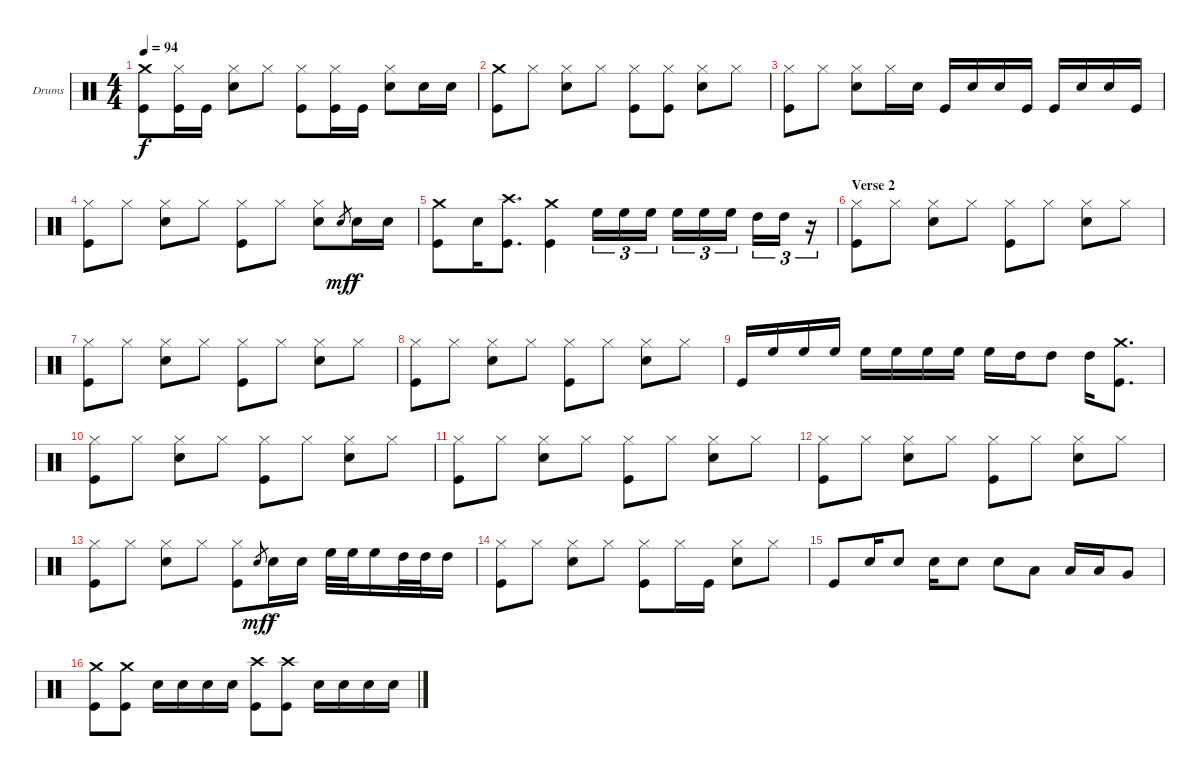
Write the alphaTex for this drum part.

\bracketExtendMode groupsimilarinstruments
\firstSystemTrackNameOrientation horizontal
\otherSystemsTrackNameOrientation horizontal
\track ("Drumkit" "Drums") {instrument percussion}
\staff {score}
\articulation defaults
\ts (4 4)
\tempo 94
\clef neutral
\ks c
("Crash medium (hit)" "Kick (hit)").8{dy f} ("Hi-Hat (closed)" "Kick (hit)").16 "Kick (hit)".16 ("Hi-Hat (closed)" "Snare (hit) 2").8 "Hi-Hat (closed)".8 ("Hi-Hat (closed)" "Kick (hit)").8 ("Hi-Hat (closed)" "Kick (hit)").16 "Kick (hit)".16 ("Hi-Hat (closed)" "Snare (hit) 2").8 "Snare (hit) 2".16 "Snare (hit) 2".16 |
("Crash medium (hit)" "Kick (hit)").8 "Hi-Hat (closed)".8 ("Hi-Hat (closed)" "Snare (hit) 2").8 "Hi-Hat (closed)".8 ("Hi-Hat (closed)" "Kick (hit)").8 ("Hi-Hat (closed)" "Kick (hit)").8 ("Hi-Hat (closed)" "Snare (hit) 2").8 "Hi-Hat (closed)".8 |
("Hi-Hat (closed)" "Kick (hit)").8 "Hi-Hat (closed)".8 ("Hi-Hat (closed)" "Snare (hit) 2").8 "Hi-Hat (closed)".16 "Snare (hit) 2".16 "Kick (hit)".16 "Snare (hit) 2".16 "Snare (hit) 2".16 "Kick (hit)".16 "Kick (hit)".16 "Snare (hit) 2".16 "Snare (hit) 2".16 "Kick (hit)".16 |
("Hi-Hat (closed)" "Kick (hit)").8 "Hi-Hat (closed)".8 ("Hi-Hat (closed)" "Snare (hit) 2").8 "Hi-Hat (closed)".8 ("Hi-Hat (closed)" "Kick (hit)").8 "Hi-Hat (closed)".8 ("Hi-Hat (closed)" "Snare (hit) 2").8 "Snare (hit) 2".8{gr dy mf} "Snare (hit) 2".16{dy f} "Snare (hit) 2".16 |
("Crash medium (hit)" "Kick (hit)").8 "Snare (hit) 2".16 ("Crash high (hit)" "Kick (hit)").8{d} ("Crash medium (hit)" "Kick (hit)").4 "High Floor Tom (hit)".16{tu (3 2)} "High Floor Tom (hit)".16{tu (3 2)} "High Floor Tom (hit)".16{tu (3 2)} "High Floor Tom (hit)".16{tu (3 2)} "High Floor Tom (hit)".16{tu (3 2)} "High Floor Tom (hit)".16{tu (3 2)} "High Tom (hit)".16{tu (3 2)} "High Tom (hit)".16{tu (3 2)} r.16{tu (3 2)} |
\section ("" "Verse 2")
("Hi-Hat (closed)" "Kick (hit)").8 "Hi-Hat (closed)".8 ("Hi-Hat (closed)" "Snare (hit) 2").8 "Hi-Hat (closed)".8 ("Hi-Hat (closed)" "Kick (hit)").8 "Hi-Hat (closed)".8 ("Hi-Hat (closed)" "Snare (hit) 2").8 "Hi-Hat (closed)".8 |
("Hi-Hat (closed)" "Kick (hit)").8 "Hi-Hat (closed)".8 ("Hi-Hat (closed)" "Snare (hit) 2").8 "Hi-Hat (closed)".8 ("Hi-Hat (closed)" "Kick (hit)").8 "Hi-Hat (closed)".8 ("Hi-Hat (closed)" "Snare (hit) 2").8 "Hi-Hat (closed)".8 |
("Hi-Hat (closed)" "Kick (hit)").8 "Hi-Hat (closed)".8 ("Hi-Hat (closed)" "Snare (hit) 2").8 "Hi-Hat (closed)".8 ("Hi-Hat (closed)" "Kick (hit)").8 "Hi-Hat (closed)".8 ("Hi-Hat (closed)" "Snare (hit) 2").8 "Hi-Hat (closed)".8 |
"Kick (hit)".16 "High Floor Tom (hit)".16 "High Floor Tom (hit)".16 "High Floor Tom (hit)".16 "High Floor Tom (hit)".16 "High Floor Tom (hit)".16 "High Floor Tom (hit)".16 "High Floor Tom (hit)".16 "High Floor Tom (hit)".16 "High Tom (hit)".16 "High Tom (hit)".8 "High Tom (hit)".16 ("Crash medium (hit)" "Kick (hit)").8{d} |
("Hi-Hat (closed)" "Kick (hit)").8 "Hi-Hat (closed)".8 ("Hi-Hat (closed)" "Snare (hit) 2").8 "Hi-Hat (closed)".8 ("Hi-Hat (closed)" "Kick (hit)").8 "Hi-Hat (closed)".8 ("Hi-Hat (closed)" "Snare (hit) 2").8 "Hi-Hat (closed)".8 |
("Hi-Hat (closed)" "Kick (hit)").8 "Hi-Hat (closed)".8 ("Hi-Hat (closed)" "Snare (hit) 2").8 "Hi-Hat (closed)".8 ("Hi-Hat (closed)" "Kick (hit)").8 "Hi-Hat (closed)".8 ("Hi-Hat (closed)" "Snare (hit) 2").8 "Hi-Hat (closed)".8 |
("Hi-Hat (closed)" "Kick (hit)").8 "Hi-Hat (closed)".8 ("Hi-Hat (closed)" "Snare (hit) 2").8 "Hi-Hat (closed)".8 ("Hi-Hat (closed)" "Kick (hit)").8 "Hi-Hat (closed)".8 ("Hi-Hat (closed)" "Snare (hit) 2").8 "Hi-Hat (closed)".8 |
("Hi-Hat (closed)" "Kick (hit)").8 "Hi-Hat (closed)".8 ("Hi-Hat (closed)" "Snare (hit) 2").8 "Hi-Hat (closed)".8 ("Hi-Hat (closed)" "Kick (hit)").8 "Snare (hit) 2".8{gr dy mf} "Snare (hit) 2".16{dy f} "Snare (hit) 2".16 "High Floor Tom (hit)".32 "High Floor Tom (hit)".32 "High Floor Tom (hit)".16 "High Tom (hit)".32 "High Tom (hit)".32 "High Tom (hit)".16 |
("Hi-Hat (closed)" "Kick (hit)").8 "Hi-Hat (closed)".8 ("Hi-Hat (closed)" "Snare (hit) 2").8 "Hi-Hat (closed)".8 ("Hi-Hat (closed)" "Kick (hit)").8 "Hi-Hat (closed)".16 "Kick (hit)".16 ("Hi-Hat (closed)" "Snare (hit) 2").8 "Hi-Hat (closed)".8 |
"Kick (hit)".8 "Snare (hit) 2".16 "Snare (hit) 2".8 "Snare (hit) 2".16 "Snare (hit) 2".8 "Snare (hit) 2".8 "Low Tom (hit)".8 "Low Tom (hit)".16 "Low Tom (hit)".16 "Very Low Tom (hit)".8 |
("Crash medium (hit)" "Kick (hit)").8 ("Crash medium (hit)" "Kick (hit)").8 "Snare (hit) 2".16 "Snare (hit) 2".16 "Snare (hit) 2".16 "Snare (hit) 2".16 ("Crash high (hit)" "Kick (hit)").8 ("Crash high (hit)" "Kick (hit)").8 "Snare (hit) 2".16 "Snare (hit) 2".16 "Snare (hit) 2".16 "Snare (hit) 2".16
